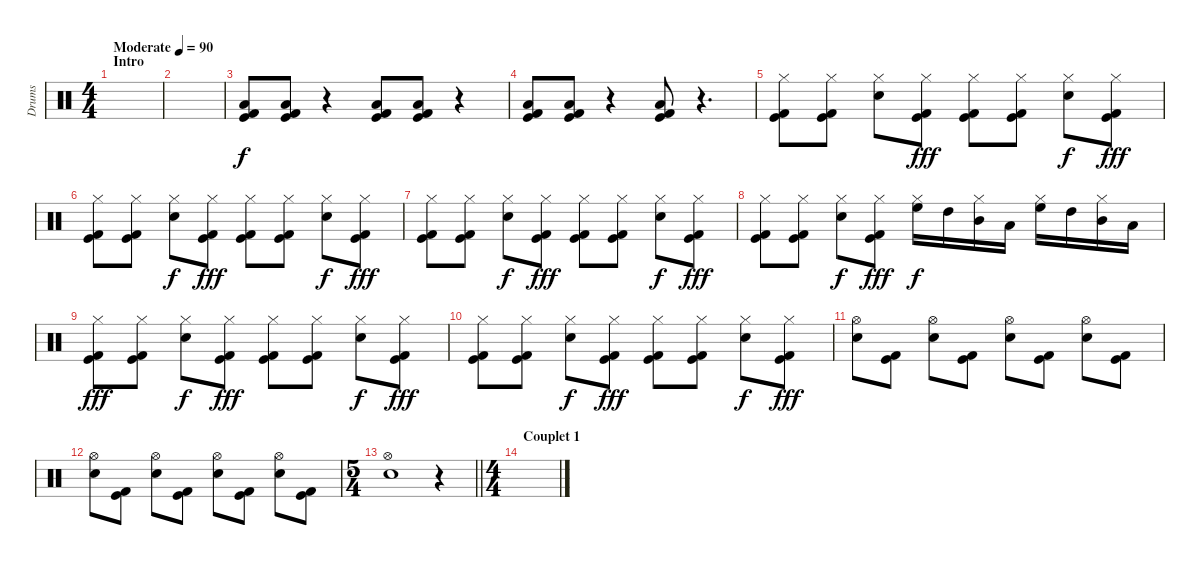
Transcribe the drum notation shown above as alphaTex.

\track ("Drums" "Drums") {instrument percussion}
\staff {score}
\articulation defaults
\ts (4 4)
\section ("" "Intro")
\tempo (90 "Moderate")
\clef neutral
\ks c
|
|
("Low Tom (hit)" "Kick (hit) 2" "Kick (hit)").8 ("Low Tom (hit)" "Kick (hit) 2" "Kick (hit)").8 r.4 ("Low Tom (hit)" "Kick (hit) 2" "Kick (hit)").8 ("Low Tom (hit)" "Kick (hit) 2" "Kick (hit)").8 r.4 |
("Low Tom (hit)" "Kick (hit) 2" "Kick (hit)").8 ("Low Tom (hit)" "Kick (hit) 2" "Kick (hit)").8 r.4 ("Low Tom (hit)" "Kick (hit) 2" "Kick (hit)").8 r.4{d} |
("Hi-Hat (closed)" "Kick (hit) 2" "Kick (hit)").8 ("Hi-Hat (closed)" "Kick (hit) 2" "Kick (hit)").8 ("Hi-Hat (closed)" "Snare (hit) 2").8{dy f} ("Hi-Hat (closed)" "Kick (hit) 2" "Kick (hit)").8{dy fff} ("Hi-Hat (closed)" "Kick (hit) 2" "Kick (hit)").8 ("Hi-Hat (closed)" "Kick (hit) 2" "Kick (hit)").8 ("Hi-Hat (closed)" "Snare (hit) 2").8{dy f} ("Hi-Hat (closed)" "Kick (hit) 2" "Kick (hit)").8{dy fff} |
("Hi-Hat (closed)" "Kick (hit) 2" "Kick (hit)").8 ("Hi-Hat (closed)" "Kick (hit) 2" "Kick (hit)").8 ("Hi-Hat (closed)" "Snare (hit) 2").8{dy f} ("Hi-Hat (closed)" "Kick (hit) 2" "Kick (hit)").8{dy fff} ("Hi-Hat (closed)" "Kick (hit) 2" "Kick (hit)").8 ("Hi-Hat (closed)" "Kick (hit) 2" "Kick (hit)").8 ("Hi-Hat (closed)" "Snare (hit) 2").8{dy f} ("Hi-Hat (closed)" "Kick (hit) 2" "Kick (hit)").8{dy fff} |
("Hi-Hat (closed)" "Kick (hit) 2" "Kick (hit)").8 ("Hi-Hat (closed)" "Kick (hit) 2" "Kick (hit)").8 ("Hi-Hat (closed)" "Snare (hit) 2").8{dy f} ("Hi-Hat (closed)" "Kick (hit) 2" "Kick (hit)").8{dy fff} ("Hi-Hat (closed)" "Kick (hit) 2" "Kick (hit)").8 ("Hi-Hat (closed)" "Kick (hit) 2" "Kick (hit)").8 ("Hi-Hat (closed)" "Snare (hit) 2").8{dy f} ("Hi-Hat (closed)" "Kick (hit) 2" "Kick (hit)").8{dy fff} |
("Hi-Hat (closed)" "Kick (hit) 2" "Kick (hit)").8 ("Hi-Hat (closed)" "Kick (hit) 2" "Kick (hit)").8 ("Hi-Hat (closed)" "Snare (hit) 2").8{dy f} ("Hi-Hat (closed)" "Kick (hit) 2" "Kick (hit)").8{dy fff} ("Hi-Hat (closed)" "High Floor Tom (hit)").16{dy f} "High Tom (hit)".16 ("Hi-Hat (closed)" "Mid Tom (hit)").16 "Low Tom (hit)".16 ("Hi-Hat (closed)" "High Floor Tom (hit)").16 "High Tom (hit)".16 ("Hi-Hat (closed)" "Mid Tom (hit)").16 "Low Tom (hit)".16 |
("Hi-Hat (closed)" "Kick (hit) 2" "Kick (hit)").8{dy fff} ("Hi-Hat (closed)" "Kick (hit) 2" "Kick (hit)").8 ("Hi-Hat (closed)" "Snare (hit) 2").8{dy f} ("Hi-Hat (closed)" "Kick (hit) 2" "Kick (hit)").8{dy fff} ("Hi-Hat (closed)" "Kick (hit) 2" "Kick (hit)").8 ("Hi-Hat (closed)" "Kick (hit) 2" "Kick (hit)").8 ("Hi-Hat (closed)" "Snare (hit) 2").8{dy f} ("Hi-Hat (closed)" "Kick (hit) 2" "Kick (hit)").8{dy fff} |
("Hi-Hat (closed)" "Kick (hit) 2" "Kick (hit)").8 ("Hi-Hat (closed)" "Kick (hit) 2" "Kick (hit)").8 ("Hi-Hat (closed)" "Snare (hit) 2").8{dy f} ("Hi-Hat (closed)" "Kick (hit) 2" "Kick (hit)").8{dy fff} ("Hi-Hat (closed)" "Kick (hit) 2" "Kick (hit)").8 ("Hi-Hat (closed)" "Kick (hit) 2" "Kick (hit)").8 ("Hi-Hat (closed)" "Snare (hit) 2").8{dy f} ("Hi-Hat (closed)" "Kick (hit) 2" "Kick (hit)").8{dy fff} |
("Hi-Hat (open)" "Snare (hit) 2").8 ("Kick (hit) 2" "Kick (hit)").8 ("Hi-Hat (open)" "Snare (hit) 2").8 ("Kick (hit) 2" "Kick (hit)").8 ("Hi-Hat (open)" "Snare (hit) 2").8 ("Kick (hit) 2" "Kick (hit)").8 ("Hi-Hat (open)" "Snare (hit) 2").8 ("Kick (hit) 2" "Kick (hit)").8 |
("Hi-Hat (open)" "Snare (hit) 2").8 ("Kick (hit) 2" "Kick (hit)").8 ("Hi-Hat (open)" "Snare (hit) 2").8 ("Kick (hit) 2" "Kick (hit)").8 ("Hi-Hat (open)" "Snare (hit) 2").8 ("Kick (hit) 2" "Kick (hit)").8 ("Hi-Hat (open)" "Snare (hit) 2").8 ("Kick (hit) 2" "Kick (hit)").8 |
\ts (5 4)
\barLineRight lightlight
("Hi-Hat (open)" "Snare (hit) 2").1 r.4 |
\ts (4 4)
\section ("" "Couplet 1")
